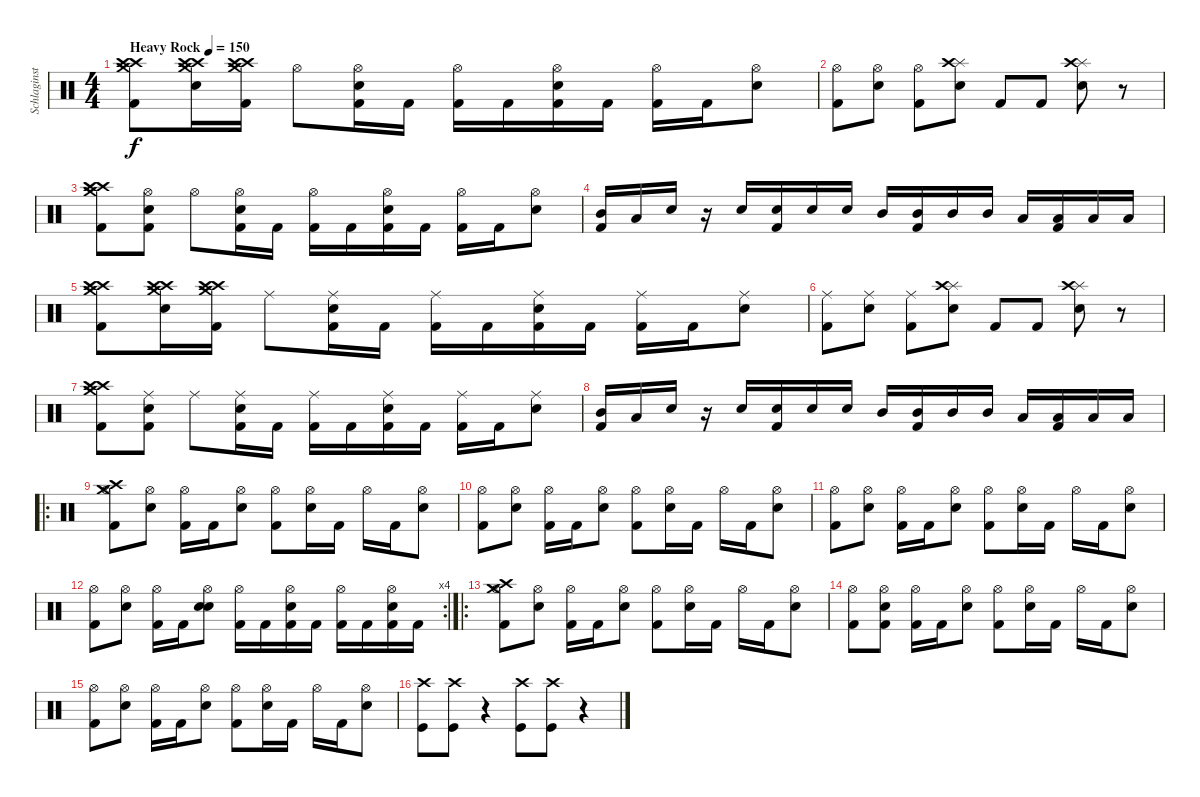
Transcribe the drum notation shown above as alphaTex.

\track ("Schlaginstrumente - Auswahl" "Schlaginst") {instrument percussion}
\staff {score}
\articulation defaults
\ts (4 4)
\tempo (150 "Heavy Rock")
\clef neutral
\ks c
("Crash high (hit)" "Crash high (hit)" "Crash medium (hit)" "Kick (hit) 2").8{dy f} ("Crash high (hit)" "Crash high (hit)" "Crash medium (hit)" "Electric Snare (hit)").16 ("Crash high (hit)" "Crash high (hit)" "Crash medium (hit)" "Kick (hit) 2").16 "Hi-Hat (open)".8 ("Electric Snare (hit)" "Hi-Hat (open)" "Kick (hit) 2").16 "Kick (hit) 2".16 ("Hi-Hat (open)" "Kick (hit) 2").16 "Kick (hit) 2".16 ("Electric Snare (hit)" "Hi-Hat (open)" "Kick (hit) 2").16 "Kick (hit) 2".16 ("Hi-Hat (open)" "Kick (hit) 2").16 "Kick (hit) 2".16 ("Electric Snare (hit)" "Hi-Hat (open)").8 |
("Hi-Hat (open)" "Kick (hit) 2").8 ("Electric Snare (hit)" "Hi-Hat (open)").8 ("Hi-Hat (open)" "Kick (hit) 2").8 ("Splash (hit)" "Crash high (hit)" "Electric Snare (hit)").8 "Kick (hit) 2".8 "Kick (hit) 2".8 ("Splash (hit)" "Crash high (hit)" "Electric Snare (hit)").8 r.8 |
("Crash high (hit)" "Crash high (hit)" "Crash medium (hit)" "Kick (hit) 2").8 ("Electric Snare (hit)" "Hi-Hat (open)" "Kick (hit) 2").8 "Hi-Hat (open)".8 ("Electric Snare (hit)" "Hi-Hat (open)" "Kick (hit) 2").16 "Kick (hit) 2".16 ("Hi-Hat (open)" "Kick (hit) 2").16 "Kick (hit) 2".16 ("Electric Snare (hit)" "Hi-Hat (open)" "Kick (hit) 2").16 "Kick (hit) 2".16 ("Hi-Hat (open)" "Kick (hit) 2").16 "Kick (hit) 2".16 ("Electric Snare (hit)" "Hi-Hat (open)").8 |
("Mid Tom (hit)" "Kick (hit) 2").16 "Low Tom (hit)".16 "Electric Snare (hit)".16 r.16 "Electric Snare (hit)".16 ("Electric Snare (hit)" "Kick (hit) 2").16 "Electric Snare (hit)".16 "Electric Snare (hit)".16 "Mid Tom (hit)".16 ("Mid Tom (hit)" "Kick (hit) 2").16 "Mid Tom (hit)".16 "Mid Tom (hit)".16 "Low Tom (hit)".16 ("Low Tom (hit)" "Kick (hit) 2").16 "Low Tom (hit)".16 "Low Tom (hit)".16 |
("Crash high (hit)" "Crash high (hit)" "Crash medium (hit)" "Kick (hit) 2").8 ("Crash high (hit)" "Crash high (hit)" "Crash medium (hit)" "Electric Snare (hit)").16 ("Crash high (hit)" "Crash high (hit)" "Crash medium (hit)" "Kick (hit) 2").16 "Ride (middle)".8 ("Electric Snare (hit)" "Ride (middle)" "Kick (hit) 2").16 "Kick (hit) 2".16 ("Ride (middle)" "Kick (hit) 2").16 "Kick (hit) 2".16 ("Electric Snare (hit)" "Ride (middle)" "Kick (hit) 2").16 "Kick (hit) 2".16 ("Ride (middle)" "Kick (hit) 2").16 "Kick (hit) 2".16 ("Electric Snare (hit)" "Ride (middle)").8 |
("Ride (middle)" "Kick (hit) 2").8 ("Electric Snare (hit)" "Ride (middle)").8 ("Ride (middle)" "Kick (hit) 2").8 ("Splash (hit)" "Crash high (hit)" "Electric Snare (hit)").8 "Kick (hit) 2".8 "Kick (hit) 2".8 ("Splash (hit)" "Crash high (hit)" "Electric Snare (hit)").8 r.8 |
("Crash high (hit)" "Crash high (hit)" "Crash medium (hit)" "Kick (hit) 2").8 ("Electric Snare (hit)" "Ride (middle)" "Kick (hit) 2").8 "Ride (middle)".8 ("Electric Snare (hit)" "Ride (middle)" "Kick (hit) 2").16 "Kick (hit) 2".16 ("Ride (middle)" "Kick (hit) 2").16 "Kick (hit) 2".16 ("Electric Snare (hit)" "Ride (middle)" "Kick (hit) 2").16 "Kick (hit) 2".16 ("Ride (middle)" "Kick (hit) 2").16 "Kick (hit) 2".16 ("Electric Snare (hit)" "Ride (middle)").8 |
("Mid Tom (hit)" "Kick (hit) 2").16 "Low Tom (hit)".16 "Electric Snare (hit)".16 r.16 "Electric Snare (hit)".16 ("Electric Snare (hit)" "Kick (hit) 2").16 "Electric Snare (hit)".16 "Electric Snare (hit)".16 "Mid Tom (hit)".16 ("Mid Tom (hit)" "Kick (hit) 2").16 "Mid Tom (hit)".16 "Mid Tom (hit)".16 "Low Tom (hit)".16 ("Low Tom (hit)" "Kick (hit) 2").16 "Low Tom (hit)".16 "Low Tom (hit)".16 |
\ro
("Crash high (hit)" "Crash medium (hit)" "Hi-Hat (open)" "Kick (hit) 2").8 ("Electric Snare (hit)" "Hi-Hat (open)").8 ("Hi-Hat (open)" "Kick (hit) 2").16 "Kick (hit) 2".16 ("Hi-Hat (open)" "Electric Snare (hit)").8 ("Hi-Hat (open)" "Kick (hit) 2").8 ("Hi-Hat (open)" "Electric Snare (hit)").16 "Kick (hit) 2".16 "Hi-Hat (open)".16 "Kick (hit) 2".16 ("Hi-Hat (open)" "Electric Snare (hit)").8 |
("Hi-Hat (open)" "Kick (hit) 2").8 ("Electric Snare (hit)" "Hi-Hat (open)").8 ("Hi-Hat (open)" "Kick (hit) 2").16 "Kick (hit) 2".16 ("Hi-Hat (open)" "Electric Snare (hit)").8 ("Hi-Hat (open)" "Kick (hit) 2").8 ("Hi-Hat (open)" "Electric Snare (hit)").16 "Kick (hit) 2".16 "Hi-Hat (open)".16 "Kick (hit) 2".16 ("Hi-Hat (open)" "Electric Snare (hit)").8 |
("Hi-Hat (open)" "Kick (hit) 2").8 ("Electric Snare (hit)" "Hi-Hat (open)").8 ("Hi-Hat (open)" "Kick (hit) 2").16 "Kick (hit) 2".16 ("Hi-Hat (open)" "Electric Snare (hit)").8 ("Hi-Hat (open)" "Kick (hit) 2").8 ("Hi-Hat (open)" "Electric Snare (hit)").16 "Kick (hit) 2".16 "Hi-Hat (open)".16 "Kick (hit) 2".16 ("Hi-Hat (open)" "Electric Snare (hit)").8 |
\rc 4
("Hi-Hat (open)" "Kick (hit) 2").8 ("Electric Snare (hit)" "Hi-Hat (open)").8 ("Hi-Hat (open)" "Kick (hit) 2").16 "Kick (hit) 2".16 ("Electric Snare (hit)" "Hi-Hat (open)" "Electric Snare (hit)").8 ("Hi-Hat (open)" "Kick (hit) 2").16 "Kick (hit) 2".16 ("Electric Snare (hit)" "Hi-Hat (open)" "Kick (hit) 2").16 "Kick (hit) 2".16 ("Hi-Hat (open)" "Kick (hit) 2").16 "Kick (hit) 2".16 ("Electric Snare (hit)" "Hi-Hat (open)" "Kick (hit) 2").16 "Kick (hit) 2".16 |
\ro
("Crash high (hit)" "Crash medium (hit)" "Hi-Hat (open)" "Kick (hit) 2").8 ("Electric Snare (hit)" "Hi-Hat (open)").8 ("Hi-Hat (open)" "Kick (hit) 2").16 "Kick (hit) 2".16 ("Hi-Hat (open)" "Electric Snare (hit)").8 ("Hi-Hat (open)" "Kick (hit) 2").8 ("Hi-Hat (open)" "Electric Snare (hit)").16 "Kick (hit) 2".16 "Hi-Hat (open)".16 "Kick (hit) 2".16 ("Hi-Hat (open)" "Electric Snare (hit)").8 |
("Hi-Hat (open)" "Kick (hit) 2").8 ("Electric Snare (hit)" "Hi-Hat (open)" "Kick (hit) 2").8 ("Hi-Hat (open)" "Kick (hit) 2").16 "Kick (hit) 2".16 ("Hi-Hat (open)" "Electric Snare (hit)").8 ("Hi-Hat (open)" "Kick (hit) 2").8 ("Hi-Hat (open)" "Electric Snare (hit)").16 "Kick (hit) 2".16 "Hi-Hat (open)".16 "Kick (hit) 2".16 ("Hi-Hat (open)" "Electric Snare (hit)").8 |
("Hi-Hat (open)" "Kick (hit) 2").8 ("Electric Snare (hit)" "Hi-Hat (open)").8 ("Hi-Hat (open)" "Kick (hit) 2").16 "Kick (hit) 2".16 ("Hi-Hat (open)" "Electric Snare (hit)").8 ("Hi-Hat (open)" "Kick (hit) 2").8 ("Hi-Hat (open)" "Electric Snare (hit)").16 "Kick (hit) 2".16 "Hi-Hat (open)".16 "Kick (hit) 2".16 ("Hi-Hat (open)" "Electric Snare (hit)").8 |
("Crash high (hit)" "Kick (hit)").8 ("Crash high (hit)" "Kick (hit)").8 r.4 ("Crash high (hit)" "Kick (hit)").8 ("Crash high (hit)" "Kick (hit)").8 r.4
